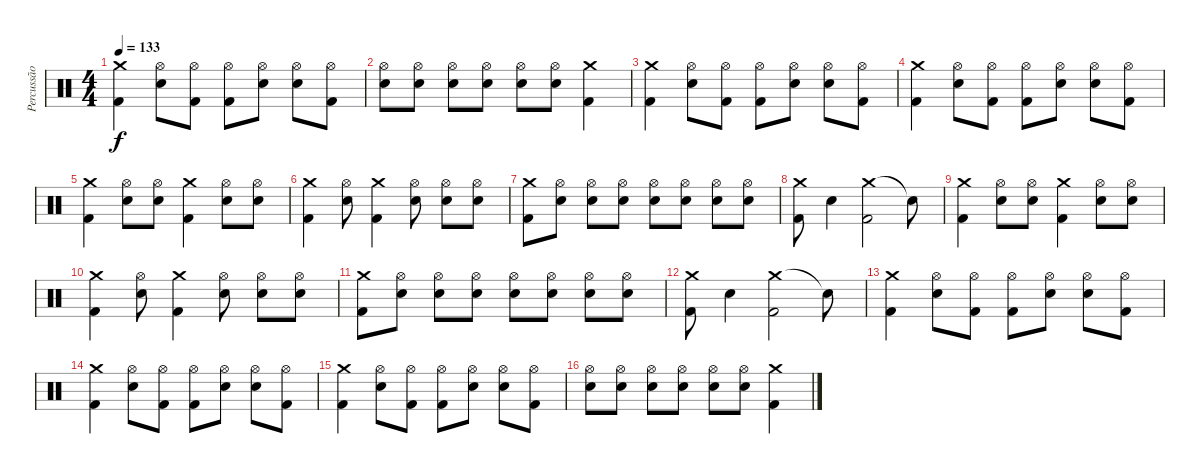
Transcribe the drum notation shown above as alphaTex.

\track ("Percussão" "Percussão") {instrument percussion}
\staff {score}
\articulation defaults
\ts (4 4)
\tempo 133
\clef neutral
\ks c
("Crash medium (hit)" "Kick (hit) 2").4{dy f} ("Electric Snare (hit)" "Hi-Hat (open)").8 ("Kick (hit) 2" "Hi-Hat (open)").8 ("Kick (hit) 2" "Hi-Hat (open)").8 ("Electric Snare (hit)" "Hi-Hat (open)").8 ("Electric Snare (hit)" "Hi-Hat (open)").8 ("Kick (hit) 2" "Hi-Hat (open)").8 |
("Electric Snare (hit)" "Hi-Hat (open)").8 ("Electric Snare (hit)" "Hi-Hat (open)").8 ("Electric Snare (hit)" "Hi-Hat (open)").8 ("Electric Snare (hit)" "Hi-Hat (open)").8 ("Electric Snare (hit)" "Hi-Hat (open)").8 ("Electric Snare (hit)" "Hi-Hat (open)").8 ("Crash medium (hit)" "Kick (hit) 2").4 |
("Crash medium (hit)" "Kick (hit) 2").4 ("Electric Snare (hit)" "Hi-Hat (open)").8 ("Kick (hit) 2" "Hi-Hat (open)").8 ("Kick (hit) 2" "Hi-Hat (open)").8 ("Electric Snare (hit)" "Hi-Hat (open)").8 ("Electric Snare (hit)" "Hi-Hat (open)").8 ("Kick (hit) 2" "Hi-Hat (open)").8 |
("Crash medium (hit)" "Kick (hit) 2").4 ("Electric Snare (hit)" "Hi-Hat (open)").8 ("Kick (hit) 2" "Hi-Hat (open)").8 ("Kick (hit) 2" "Hi-Hat (open)").8 ("Electric Snare (hit)" "Hi-Hat (open)").8 ("Electric Snare (hit)" "Hi-Hat (open)").8 ("Kick (hit) 2" "Hi-Hat (open)").8 |
("Crash medium (hit)" "Kick (hit) 2").4 ("Electric Snare (hit)" "Hi-Hat (open)").8 ("Electric Snare (hit)" "Hi-Hat (open)").8 ("Crash medium (hit)" "Kick (hit) 2").4 ("Electric Snare (hit)" "Hi-Hat (open)").8 ("Electric Snare (hit)" "Hi-Hat (open)").8 |
("Crash medium (hit)" "Kick (hit) 2").4 ("Electric Snare (hit)" "Hi-Hat (open)").8 ("Crash medium (hit)" "Kick (hit) 2").4 ("Electric Snare (hit)" "Hi-Hat (open)").8 ("Electric Snare (hit)" "Hi-Hat (open)").8 ("Electric Snare (hit)" "Hi-Hat (open)").8 |
("Crash medium (hit)" "Kick (hit) 2").8 ("Electric Snare (hit)" "Hi-Hat (open)").8 ("Electric Snare (hit)" "Hi-Hat (open)").8 ("Electric Snare (hit)" "Hi-Hat (open)").8 ("Electric Snare (hit)" "Hi-Hat (open)").8 ("Electric Snare (hit)" "Hi-Hat (open)").8 ("Electric Snare (hit)" "Hi-Hat (open)").8 ("Electric Snare (hit)" "Hi-Hat (open)").8 |
("Crash medium (hit)" "Kick (hit) 2").8 "Electric Snare (hit)".4 ("Crash medium (hit)" "Kick (hit) 2").2 "Snare (hit)"{t}.8 |
("Crash medium (hit)" "Kick (hit) 2").4 ("Electric Snare (hit)" "Hi-Hat (open)").8 ("Electric Snare (hit)" "Hi-Hat (open)").8 ("Crash medium (hit)" "Kick (hit) 2").4 ("Electric Snare (hit)" "Hi-Hat (open)").8 ("Electric Snare (hit)" "Hi-Hat (open)").8 |
("Crash medium (hit)" "Kick (hit) 2").4 ("Electric Snare (hit)" "Hi-Hat (open)").8 ("Crash medium (hit)" "Kick (hit) 2").4 ("Electric Snare (hit)" "Hi-Hat (open)").8 ("Electric Snare (hit)" "Hi-Hat (open)").8 ("Electric Snare (hit)" "Hi-Hat (open)").8 |
("Crash medium (hit)" "Kick (hit) 2").8 ("Electric Snare (hit)" "Hi-Hat (open)").8 ("Electric Snare (hit)" "Hi-Hat (open)").8 ("Electric Snare (hit)" "Hi-Hat (open)").8 ("Electric Snare (hit)" "Hi-Hat (open)").8 ("Electric Snare (hit)" "Hi-Hat (open)").8 ("Electric Snare (hit)" "Hi-Hat (open)").8 ("Electric Snare (hit)" "Hi-Hat (open)").8 |
("Crash medium (hit)" "Kick (hit) 2").8 "Electric Snare (hit)".4 ("Crash medium (hit)" "Kick (hit) 2").2 "Snare (hit)"{t}.8 |
("Crash medium (hit)" "Kick (hit) 2").4 ("Electric Snare (hit)" "Hi-Hat (open)").8 ("Kick (hit) 2" "Hi-Hat (open)").8 ("Kick (hit) 2" "Hi-Hat (open)").8 ("Electric Snare (hit)" "Hi-Hat (open)").8 ("Electric Snare (hit)" "Hi-Hat (open)").8 ("Kick (hit) 2" "Hi-Hat (open)").8 |
("Crash medium (hit)" "Kick (hit) 2").4 ("Electric Snare (hit)" "Hi-Hat (open)").8 ("Kick (hit) 2" "Hi-Hat (open)").8 ("Kick (hit) 2" "Hi-Hat (open)").8 ("Electric Snare (hit)" "Hi-Hat (open)").8 ("Electric Snare (hit)" "Hi-Hat (open)").8 ("Kick (hit) 2" "Hi-Hat (open)").8 |
("Crash medium (hit)" "Kick (hit) 2").4 ("Electric Snare (hit)" "Hi-Hat (open)").8 ("Kick (hit) 2" "Hi-Hat (open)").8 ("Kick (hit) 2" "Hi-Hat (open)").8 ("Electric Snare (hit)" "Hi-Hat (open)").8 ("Electric Snare (hit)" "Hi-Hat (open)").8 ("Kick (hit) 2" "Hi-Hat (open)").8 |
("Electric Snare (hit)" "Hi-Hat (open)").8 ("Electric Snare (hit)" "Hi-Hat (open)").8 ("Electric Snare (hit)" "Hi-Hat (open)").8 ("Electric Snare (hit)" "Hi-Hat (open)").8 ("Electric Snare (hit)" "Hi-Hat (open)").8 ("Electric Snare (hit)" "Hi-Hat (open)").8 ("Crash medium (hit)" "Kick (hit) 2").4
